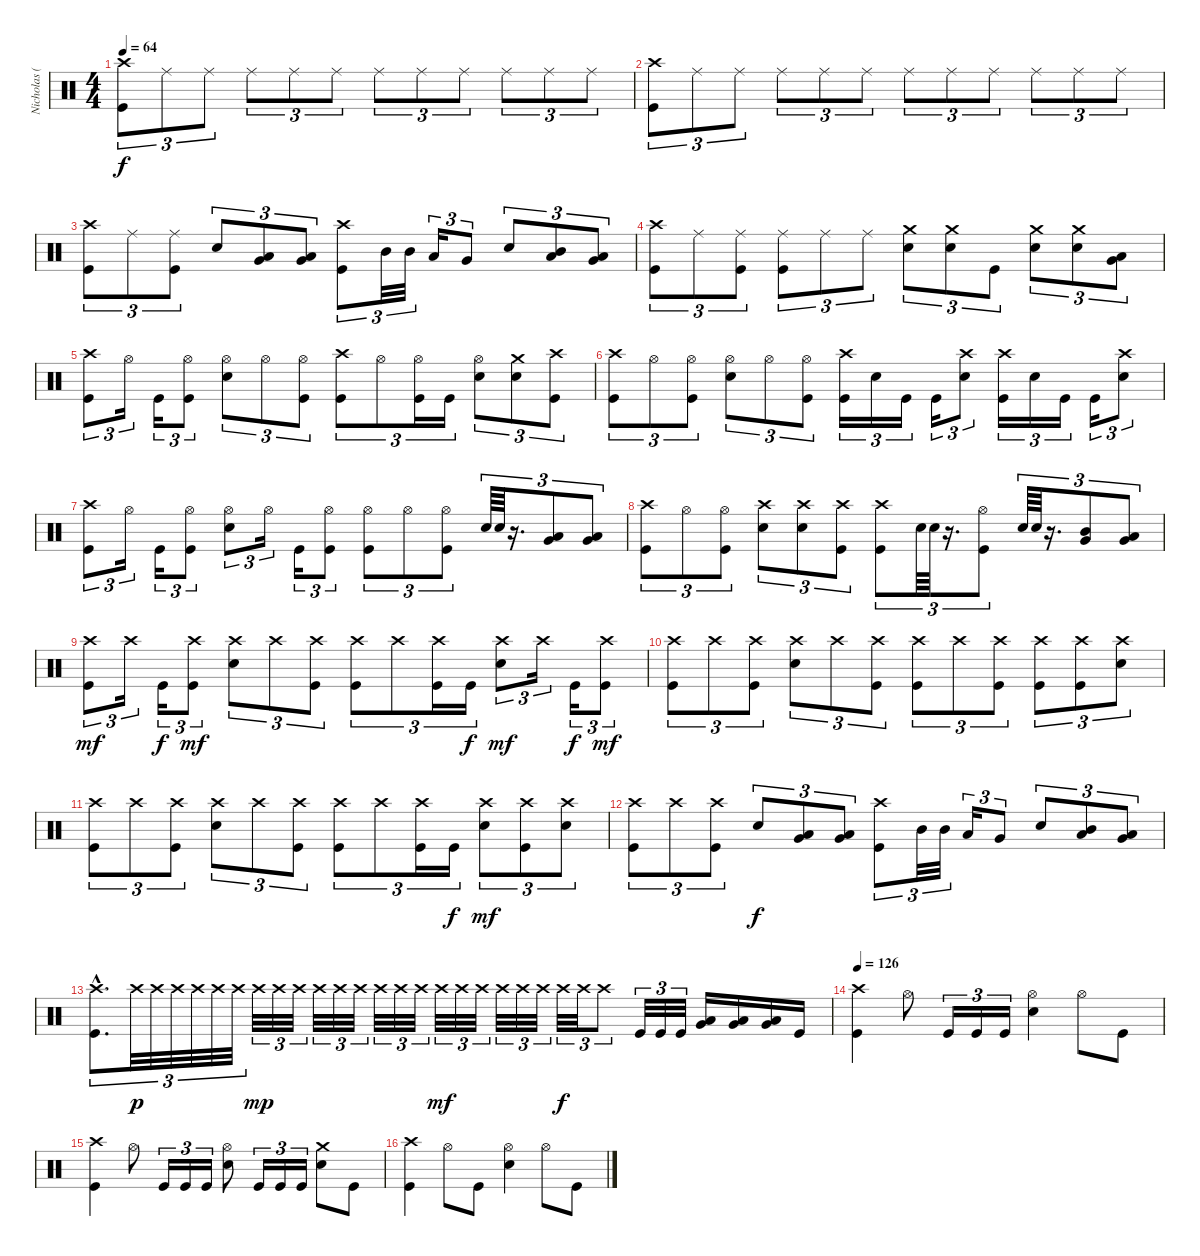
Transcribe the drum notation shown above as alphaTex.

\track ("Nicholas (Drums)" "Nicholas (") {instrument percussion}
\staff {score}
\articulation defaults
\ts (4 4)
\tempo 64
\clef neutral
\ks c
("Crash high (hit)" "Kick (hit)").8{tu (3 2) dy f} "Ride (middle)".8{tu (3 2)} "Ride (middle)".8{tu (3 2)} "Ride (middle)".8{tu (3 2)} "Ride (middle)".8{tu (3 2)} "Ride (middle)".8{tu (3 2)} "Ride (middle)".8{tu (3 2)} "Ride (middle)".8{tu (3 2)} "Ride (middle)".8{tu (3 2)} "Ride (middle)".8{tu (3 2)} "Ride (middle)".8{tu (3 2)} "Ride (middle)".8{tu (3 2)} |
("Crash high (hit)" "Kick (hit)").8{tu (3 2)} "Ride (middle)".8{tu (3 2)} "Ride (middle)".8{tu (3 2)} "Ride (middle)".8{tu (3 2)} "Ride (middle)".8{tu (3 2)} "Ride (middle)".8{tu (3 2)} "Ride (middle)".8{tu (3 2)} "Ride (middle)".8{tu (3 2)} "Ride (middle)".8{tu (3 2)} "Ride (middle)".8{tu (3 2)} "Ride (middle)".8{tu (3 2)} "Ride (middle)".8{tu (3 2)} |
("Crash high (hit)" "Kick (hit)").8{tu (3 2)} "Ride (middle)".8{tu (3 2)} ("Ride (middle)" "Kick (hit)").8{tu (3 2)} "Electric Snare (hit)".8{tu (3 2)} ("Low Tom (hit)" "Very Low Tom (hit)").8{tu (3 2) bu 60} ("Low Tom (hit)" "Very Low Tom (hit)").8{tu (3 2) bu 60} ("Crash high (hit)" "Kick (hit)").8{tu (3 2)} "Mid Tom (hit)".32{tu (3 2)} "Mid Tom (hit)".32{tu (3 2)} "Low Tom (hit)".16{tu (3 2)} "Very Low Tom (hit)".8{tu (3 2)} "Electric Snare (hit)".8{tu (3 2)} ("Mid Tom (hit)" "Low Tom (hit)").8{tu (3 2) bu 60} ("Low Tom (hit)" "Very Low Tom (hit)").8{tu (3 2) bu 60} |
("Crash high (hit)" "Kick (hit)").8{tu (3 2)} "Ride (middle)".8{tu (3 2)} ("Ride (middle)" "Kick (hit)").8{tu (3 2)} ("Ride (middle)" "Kick (hit)").8{tu (3 2)} "Ride (middle)".8{tu (3 2)} "Ride (middle)".8{tu (3 2)} ("Crash medium (hit)" "Electric Snare (hit)").8{tu (3 2)} ("Crash medium (hit)" "Electric Snare (hit)").8{tu (3 2)} "Kick (hit)".8{tu (3 2)} ("Crash medium (hit)" "Electric Snare (hit)").8{tu (3 2)} ("Crash medium (hit)" "Electric Snare (hit)").8{tu (3 2)} ("Low Tom (hit)" "Very Low Tom (hit)").8{tu (3 2) bu 60} |
("Crash high (hit)" "Kick (hit)").8{tu (3 2)} "Hi-Hat (open)".16{tu (3 2)} "Kick (hit)".16{tu (3 2)} ("Hi-Hat (open)" "Kick (hit)").8{tu (3 2)} ("Hi-Hat (open)" "Electric Snare (hit)").8{tu (3 2)} "Hi-Hat (open)".8{tu (3 2)} ("Hi-Hat (open)" "Kick (hit)").8{tu (3 2)} ("Crash high (hit)" "Kick (hit)").8{tu (3 2)} "Hi-Hat (open)".8{tu (3 2)} ("Hi-Hat (open)" "Kick (hit)").16{tu (3 2)} "Kick (hit)".16{tu (3 2)} ("Hi-Hat (open)" "Electric Snare (hit)").8{tu (3 2)} ("Crash medium (hit)" "Electric Snare (hit)").8{tu (3 2)} ("Crash high (hit)" "Kick (hit)").8{tu (3 2)} |
("Crash high (hit)" "Kick (hit)").8{tu (3 2)} "Hi-Hat (open)".8{tu (3 2)} ("Hi-Hat (open)" "Kick (hit)").8{tu (3 2)} ("Hi-Hat (open)" "Electric Snare (hit)").8{tu (3 2)} "Hi-Hat (open)".8{tu (3 2)} ("Hi-Hat (open)" "Kick (hit)").8{tu (3 2)} ("Crash high (hit)" "Kick (hit)").16{tu (3 2)} "Electric Snare (hit)".16{tu (3 2)} "Kick (hit)".16{tu (3 2)} "Kick (hit)".16{tu (3 2)} ("Crash high (hit)" "Electric Snare (hit)").8{tu (3 2)} ("Crash high (hit)" "Kick (hit)").16{tu (3 2)} "Electric Snare (hit)".16{tu (3 2)} "Kick (hit)".16{tu (3 2)} "Kick (hit)".16{tu (3 2)} ("Crash high (hit)" "Electric Snare (hit)").8{tu (3 2)} |
("Crash high (hit)" "Kick (hit)").8{tu (3 2)} "Hi-Hat (open)".16{tu (3 2)} "Kick (hit)".16{tu (3 2)} ("Hi-Hat (open)" "Kick (hit)").8{tu (3 2)} ("Hi-Hat (open)" "Electric Snare (hit)").8{tu (3 2)} "Hi-Hat (open)".16{tu (3 2)} "Kick (hit)".16{tu (3 2)} ("Hi-Hat (open)" "Kick (hit)").8{tu (3 2)} ("Hi-Hat (open)" "Kick (hit)").8{tu (3 2)} "Hi-Hat (open)".8{tu (3 2)} ("Hi-Hat (open)" "Kick (hit)").8{tu (3 2)} "Electric Snare (hit)".64{tu (3 2)} "Electric Snare (hit)".64{tu (3 2)} r.16{d tu (3 2)} ("Low Tom (hit)" "Very Low Tom (hit)").8{tu (3 2) bu 60} ("Low Tom (hit)" "Very Low Tom (hit)").8{tu (3 2) bu 60} |
("Crash high (hit)" "Kick (hit)").8{tu (3 2)} "Hi-Hat (open)".8{tu (3 2)} ("Hi-Hat (open)" "Kick (hit)").8{tu (3 2)} ("Crash high (hit)" "Electric Snare (hit)").8{tu (3 2)} ("Crash high (hit)" "Electric Snare (hit)").8{tu (3 2)} ("Crash high (hit)" "Kick (hit)").8{tu (3 2)} ("Crash high (hit)" "Kick (hit)").8{tu (3 2)} "Electric Snare (hit)".64{tu (3 2)} "Electric Snare (hit)".64{tu (3 2)} r.16{d tu (3 2)} ("Hi-Hat (open)" "Kick (hit)").8{tu (3 2)} "Electric Snare (hit)".64{tu (3 2)} "Electric Snare (hit)".64{tu (3 2)} r.16{d tu (3 2)} ("Mid Tom (hit)" "Very Low Tom (hit)").8{tu (3 2) bu 60} ("Low Tom (hit)" "Very Low Tom (hit)").8{tu (3 2) bu 60} |
("Crash high (hit)" "Kick (hit)").8{tu (3 2) dy mf} "Crash high (hit)".16{tu (3 2)} "Kick (hit)".16{tu (3 2) dy f} ("Crash high (hit)" "Kick (hit)").8{tu (3 2) dy mf} ("Crash high (hit)" "Electric Snare (hit)").8{tu (3 2)} "Crash high (hit)".8{tu (3 2)} ("Crash high (hit)" "Kick (hit)").8{tu (3 2)} ("Crash high (hit)" "Kick (hit)").8{tu (3 2)} "Crash high (hit)".8{tu (3 2)} ("Crash high (hit)" "Kick (hit)").16{tu (3 2)} "Kick (hit)".16{tu (3 2) dy f} ("Crash high (hit)" "Electric Snare (hit)").8{tu (3 2) dy mf} "Crash high (hit)".16{tu (3 2)} "Kick (hit)".16{tu (3 2) dy f} ("Crash high (hit)" "Kick (hit)").8{tu (3 2) dy mf} |
("Crash high (hit)" "Kick (hit)").8{tu (3 2)} "Crash high (hit)".8{tu (3 2)} ("Crash high (hit)" "Kick (hit)").8{tu (3 2)} ("Crash high (hit)" "Electric Snare (hit)").8{tu (3 2)} "Crash high (hit)".8{tu (3 2)} ("Crash high (hit)" "Kick (hit)").8{tu (3 2)} ("Crash high (hit)" "Kick (hit)").8{tu (3 2)} "Crash high (hit)".8{tu (3 2)} ("Crash high (hit)" "Kick (hit)").8{tu (3 2)} ("Crash high (hit)" "Kick (hit)").8{tu (3 2)} ("Crash high (hit)" "Kick (hit)").8{tu (3 2)} ("Crash high (hit)" "Electric Snare (hit)").8{tu (3 2)} |
("Crash high (hit)" "Kick (hit)").8{tu (3 2)} "Crash high (hit)".8{tu (3 2)} ("Crash high (hit)" "Kick (hit)").8{tu (3 2)} ("Crash high (hit)" "Electric Snare (hit)").8{tu (3 2)} "Crash high (hit)".8{tu (3 2)} ("Crash high (hit)" "Kick (hit)").8{tu (3 2)} ("Crash high (hit)" "Kick (hit)").8{tu (3 2)} "Crash high (hit)".8{tu (3 2)} ("Crash high (hit)" "Kick (hit)").16{tu (3 2)} "Kick (hit)".16{tu (3 2) dy f} ("Crash high (hit)" "Electric Snare (hit)").8{tu (3 2) dy mf} ("Crash high (hit)" "Kick (hit)").8{tu (3 2)} ("Crash high (hit)" "Electric Snare (hit)").8{tu (3 2)} |
("Crash high (hit)" "Kick (hit)").8{tu (3 2)} "Crash high (hit)".8{tu (3 2)} ("Crash high (hit)" "Kick (hit)").8{tu (3 2)} "Electric Snare (hit)".8{tu (3 2) dy f} ("Low Tom (hit)" "Very Low Tom (hit)").8{tu (3 2) bu 60} ("Low Tom (hit)" "Very Low Tom (hit)").8{tu (3 2) bu 60} ("Crash high (hit)" "Kick (hit)").8{tu (3 2)} "Mid Tom (hit)".32{tu (3 2)} "Mid Tom (hit)".32{tu (3 2)} "Low Tom (hit)".16{tu (3 2)} "Very Low Tom (hit)".8{tu (3 2)} "Electric Snare (hit)".8{tu (3 2)} ("Mid Tom (hit)" "Low Tom (hit)").8{tu (3 2) bu 60} ("Low Tom (hit)" "Very Low Tom (hit)").8{tu (3 2) bu 60} |
("Crash high (hit)"{hac} "Kick (hit)"{hac}).8{d tu (3 2)} "Crash high (hit)".32{tu (3 2) dy p} "Crash high (hit)".32{tu (3 2)} "Crash high (hit)".32{tu (3 2)} "Crash high (hit)".32{tu (3 2)} "Crash high (hit)".32{tu (3 2)} "Crash high (hit)".32{tu (3 2)} "Crash high (hit)".32{tu (3 2) dy mp} "Crash high (hit)".32{tu (3 2)} "Crash high (hit)".32{tu (3 2)} "Crash high (hit)".32{tu (3 2)} "Crash high (hit)".32{tu (3 2)} "Crash high (hit)".32{tu (3 2)} "Crash high (hit)".32{tu (3 2)} "Crash high (hit)".32{tu (3 2)} "Crash high (hit)".32{tu (3 2)} "Crash high (hit)".32{tu (3 2) dy mf} "Crash high (hit)".32{tu (3 2)} "Crash high (hit)".32{tu (3 2)} "Crash high (hit)".32{tu (3 2)} "Crash high (hit)".32{tu (3 2)} "Crash high (hit)".32{tu (3 2)} "Crash high (hit)".32{tu (3 2) dy f} "Crash high (hit)".32{tu (3 2)} "Crash high (hit)".8{tu (3 2)} "Kick (hit)".32{tu (3 2)} "Kick (hit)".32{tu (3 2)} "Kick (hit)".32{tu (3 2)} ("Low Tom (hit)" "Very Low Tom (hit)").16 ("Low Tom (hit)" "Very Low Tom (hit)").16 ("Low Tom (hit)" "Very Low Tom (hit)").16 "Kick (hit)".16 |
\tempo 126
("Crash high (hit)" "Kick (hit)").4 "Hi-Hat (open)".8 "Kick (hit)".16{tu (3 2)} "Kick (hit)".16{tu (3 2)} "Kick (hit)".16{tu (3 2)} ("Hi-Hat (open)" "Electric Snare (hit)").4 "Hi-Hat (open)".8 "Kick (hit)".8 |
("Crash high (hit)" "Kick (hit)").4 "Hi-Hat (open)".8 "Kick (hit)".16{tu (3 2)} "Kick (hit)".16{tu (3 2)} "Kick (hit)".16{tu (3 2)} ("Hi-Hat (open)" "Electric Snare (hit)").8 "Kick (hit)".16{tu (3 2)} "Kick (hit)".16{tu (3 2)} "Kick (hit)".16{tu (3 2)} ("Crash medium (hit)" "Electric Snare (hit)").8 "Kick (hit)".8 |
("Crash high (hit)" "Kick (hit)").4 "Hi-Hat (open)".8 "Kick (hit)".8 ("Hi-Hat (open)" "Electric Snare (hit)").4 "Hi-Hat (open)".8 "Kick (hit)".8
